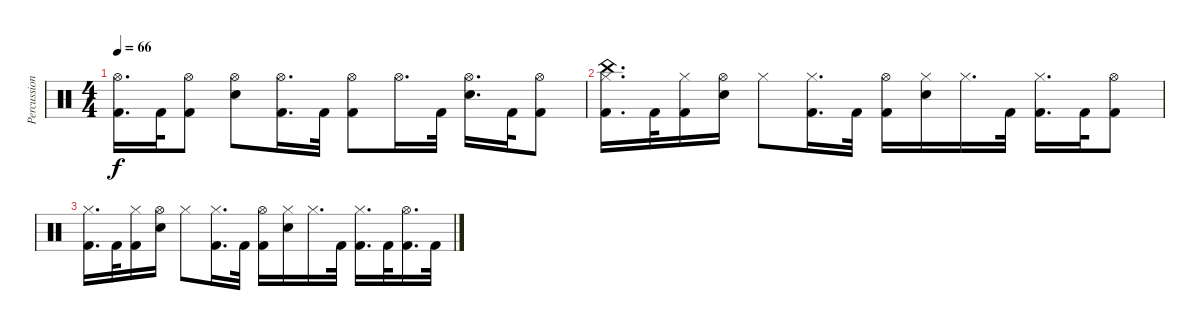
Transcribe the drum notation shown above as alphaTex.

\track ("Percussion" "Percussion") {instrument percussion}
\staff {score}
\articulation defaults
\ts (4 4)
\tempo 66
\clef neutral
\ks c
("Hi-Hat (open)" "Kick (hit) 2").16{d dy f} "Kick (hit) 2".32 ("Hi-Hat (open)" "Kick (hit) 2").8 ("Hi-Hat (open)" "Electric Snare (hit)").8 ("Hi-Hat (open)" "Kick (hit) 2").16{d} "Kick (hit) 2".32 ("Hi-Hat (open)" "Kick (hit) 2").8 "Hi-Hat (open)".16{d} "Kick (hit) 2".32 ("Hi-Hat (open)" "Electric Snare (hit)").16{d} "Kick (hit) 2".32 ("Hi-Hat (open)" "Kick (hit) 2").8 |
("China (hit)" "Hi-Hat (closed)" "Kick (hit) 2").16{d} "Kick (hit) 2".32 ("Hi-Hat (closed)" "Kick (hit) 2").16 ("Hi-Hat (open)" "Electric Snare (hit)").16 "Hi-Hat (closed)".8 ("Hi-Hat (closed)" "Kick (hit) 2").16{d} "Kick (hit) 2".32 ("Hi-Hat (open)" "Kick (hit) 2").16 ("Hi-Hat (closed)" "Electric Snare (hit)").16 "Hi-Hat (closed)".16{d} "Kick (hit) 2".32 ("Hi-Hat (closed)" "Kick (hit) 2").16{d} "Kick (hit) 2".32 ("Hi-Hat (open)" "Kick (hit) 2").8 |
("Hi-Hat (closed)" "Kick (hit) 2").16{d} "Kick (hit) 2".32 ("Hi-Hat (closed)" "Kick (hit) 2").16 ("Hi-Hat (open)" "Electric Snare (hit)").16 "Hi-Hat (closed)".8 ("Hi-Hat (closed)" "Kick (hit) 2").16{d} "Kick (hit) 2".32 ("Hi-Hat (open)" "Kick (hit) 2").16 ("Hi-Hat (closed)" "Electric Snare (hit)").16 "Hi-Hat (closed)".16{d} "Kick (hit) 2".32 ("Hi-Hat (closed)" "Kick (hit) 2").16{d} "Kick (hit) 2".32 ("Hi-Hat (open)" "Kick (hit) 2").16{d} "Kick (hit) 2".32
